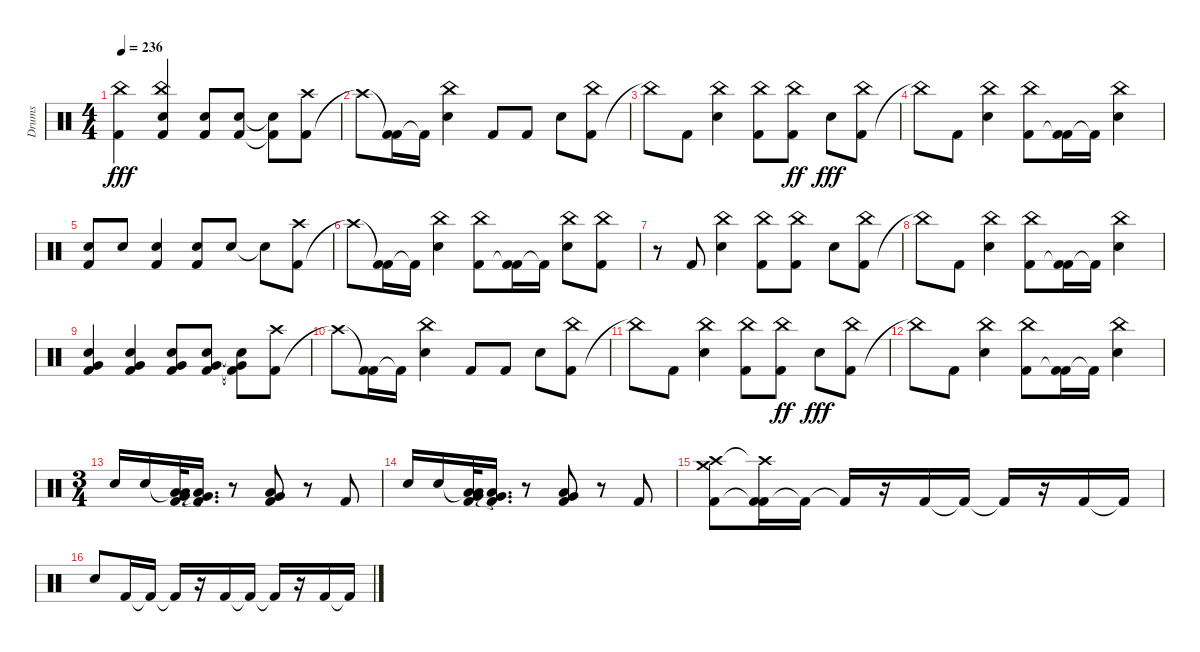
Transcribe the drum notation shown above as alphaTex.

\track ("Drums" "Drums") {instrument percussion}
\staff {score}
\articulation defaults
\ts (4 4)
\tempo 236
\clef neutral
\ks c
("Kick (hit) 2" "China (hit)").4{dy fff} ("Snare (hit) 2" "Kick (hit) 2" "China (hit)").4 ("Kick (hit) 2" "Snare (hit) 2").8 ("Kick (hit) 2" "Snare (hit) 2").8 ("Kick (hit) 2"{t} "Snare (hit) 2"{t}).8 ("Kick (hit) 2" "Crash high (hit)").8 |
"Crash high (hit)"{t}.8 ("Kick (hit) 2"{t} "Kick (hit) 2").16 "Kick (hit) 2"{t}.16 ("Snare (hit) 2" "China (hit)").4 "Kick (hit) 2".8 "Kick (hit) 2".8 "Snare (hit) 2".8 ("Kick (hit) 2" "China (hit)").8 |
"China (hit)"{t}.8 "Kick (hit) 2".8 ("Snare (hit) 2" "China (hit)").4 ("Kick (hit) 2" "China (hit)").8 ("China (hit)" "Kick (hit) 2").8{dy ff} "Snare (hit) 2".8{dy fff} ("Kick (hit) 2" "China (hit)").8 |
"China (hit)"{t}.8 "Kick (hit) 2".8 ("Snare (hit) 2" "China (hit)").4 ("Kick (hit) 2" "China (hit)").8 ("Kick (hit) 2"{t} "Kick (hit) 2").16 "Kick (hit) 2"{t}.16 ("Snare (hit) 2" "China (hit)").4 |
("Kick (hit) 2" "Snare (hit) 2").8 "Snare (hit) 2".8 ("Kick (hit) 2" "Snare (hit) 2").4 ("Kick (hit) 2" "Snare (hit) 2").8 "Snare (hit) 2".8 "Snare (hit) 2"{t}.8 ("Kick (hit) 2" "Crash high (hit)").8 |
"Crash high (hit)"{t}.8 ("Kick (hit) 2"{t} "Kick (hit) 2").16 "Kick (hit) 2"{t}.16 ("Snare (hit) 2" "China (hit)").4 ("Kick (hit) 2" "China (hit)").8 ("Kick (hit) 2"{t} "Kick (hit) 2").16 "Kick (hit) 2"{t}.16 ("Snare (hit) 2" "China (hit)").8 ("China (hit)" "Kick (hit) 2").8 |
r.8 "Kick (hit) 2".8 ("Snare (hit) 2" "China (hit)").4 ("Kick (hit) 2" "China (hit)").8 ("China (hit)" "Kick (hit) 2").8 "Snare (hit) 2".8 ("Kick (hit) 2" "China (hit)").8 |
"China (hit)"{t}.8 "Kick (hit) 2".8 ("Snare (hit) 2" "China (hit)").4 ("Kick (hit) 2" "China (hit)").8 ("Kick (hit) 2"{t} "Kick (hit) 2").16 "Kick (hit) 2"{t}.16 ("Snare (hit) 2" "China (hit)").4 |
("Kick (hit) 2" "Snare (hit) 2" "Very Low Tom (hit)").4 ("Kick (hit) 2" "Snare (hit) 2" "Very Low Tom (hit)").4 ("Kick (hit) 2" "Snare (hit) 2" "Very Low Tom (hit)").8 ("Snare (hit) 2" "Kick (hit) 2" "Very Low Tom (hit)").8 ("Snare (hit) 2"{t} "Kick (hit) 2"{t} "Very Low Tom (hit)"{t}).8 ("Kick (hit) 2" "Crash high (hit)").8 |
"Crash high (hit)"{t}.8 ("Kick (hit) 2"{t} "Kick (hit) 2").16 "Kick (hit) 2"{t}.16 ("Snare (hit) 2" "China (hit)").4 "Kick (hit) 2".8 "Kick (hit) 2".8 "Snare (hit) 2".8 ("Kick (hit) 2" "China (hit)").8 |
"China (hit)"{t}.8 "Kick (hit) 2".8 ("Snare (hit) 2" "China (hit)").4 ("Kick (hit) 2" "China (hit)").8 ("China (hit)" "Kick (hit) 2").8{dy ff} "Snare (hit) 2".8{dy fff} ("Kick (hit) 2" "China (hit)").8 |
"China (hit)"{t}.8 "Kick (hit) 2".8 ("Snare (hit) 2" "China (hit)").4 ("Kick (hit) 2" "China (hit)").8 ("Kick (hit) 2"{t} "Kick (hit) 2").16 "Kick (hit) 2"{t}.16 ("Snare (hit) 2" "China (hit)").4 |
\ts (3 4)
"Snare (hit) 2".16 "Hand Clap (hit)".16 ("Low Floor Tom (hit)"{t} "Kick (hit) 2" "Low Floor Tom (hit)" "Very Low Tom (hit)").32 ("Kick (hit) 2"{t} "Low Floor Tom (hit)"{t} "Very Low Tom (hit)"{t}).16{d} r.8 ("Kick (hit) 2" "Low Floor Tom (hit)" "Very Low Tom (hit)").8 r.8 "Kick (hit) 2".8 |
"Snare (hit) 2".16 "Hand Clap (hit)".16 ("Low Floor Tom (hit)"{t} "Kick (hit) 2" "Very Low Tom (hit)" "Low Floor Tom (hit)").32 ("Kick (hit) 2"{t} "Very Low Tom (hit)"{t} "Low Floor Tom (hit)"{t}).16{d} r.8 ("Kick (hit) 2" "Low Floor Tom (hit)" "Very Low Tom (hit)").8 r.8 "Kick (hit) 2".8 |
("Kick (hit) 2" "Crash high (hit)" "Crash medium (hit)").8 ("Kick (hit) 2"{t} "Crash high (hit)"{t} "Kick (hit) 2").16 "Kick (hit) 2"{t}.16 "Kick (hit) 2"{t}.16 r.16 "Kick (hit) 2".16 "Kick (hit) 2"{t}.16 "Kick (hit) 2"{t}.16 r.16 "Kick (hit) 2".16 "Kick (hit) 2"{t}.16 |
"Snare (hit) 2".8 "Kick (hit) 2".16 "Kick (hit) 2"{t}.16 "Kick (hit) 2"{t}.16 r.16 "Kick (hit) 2".16 "Kick (hit) 2"{t}.16 "Kick (hit) 2"{t}.16 r.16 "Kick (hit) 2".16 "Kick (hit) 2"{t}.16
